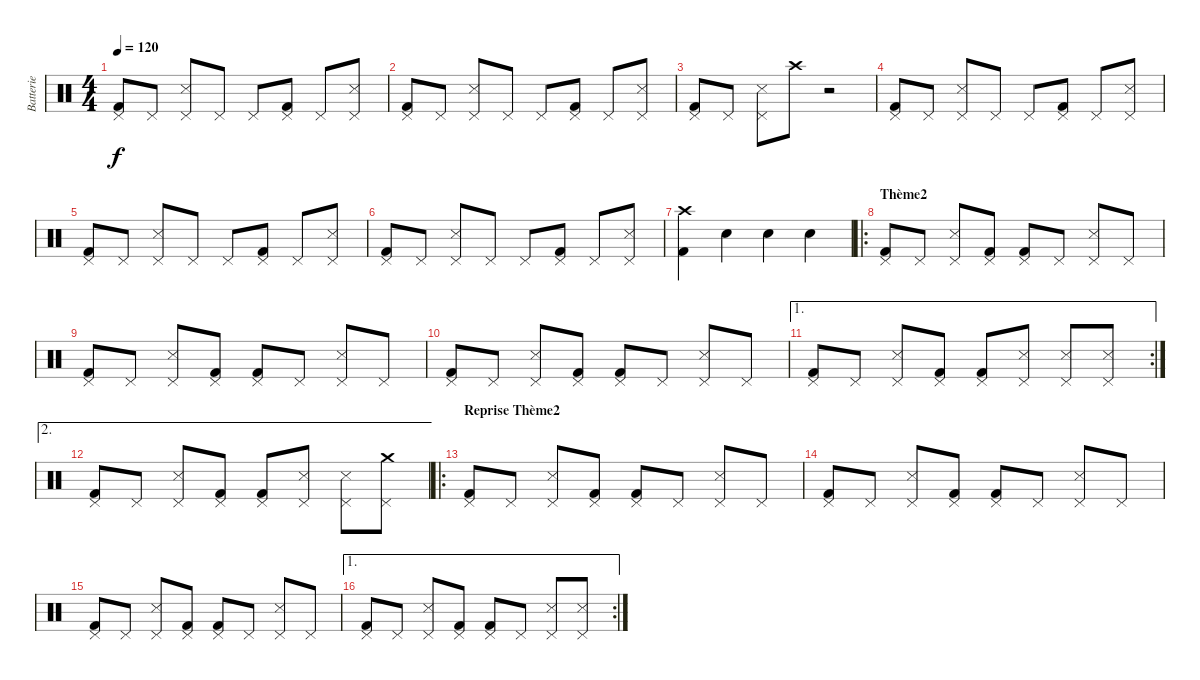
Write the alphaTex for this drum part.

\track ("Batterie" "Batterie") {instrument percussion}
\staff {score}
\articulation defaults
\ts (4 4)
\tempo 120
\clef neutral
\ks c
("Pedal Hi-Hat (hit)" "Kick (hit) 2").8{dy f} "Pedal Hi-Hat (hit)".8 ("Pedal Hi-Hat (hit)" "Snare (side stick) 3").8 "Pedal Hi-Hat (hit)".8 "Pedal Hi-Hat (hit)".8 ("Pedal Hi-Hat (hit)" "Kick (hit) 2").8 "Pedal Hi-Hat (hit)".8 ("Pedal Hi-Hat (hit)" "Snare (side stick) 3").8 |
("Pedal Hi-Hat (hit)" "Kick (hit) 2").8 "Pedal Hi-Hat (hit)".8 ("Pedal Hi-Hat (hit)" "Snare (side stick) 3").8 "Pedal Hi-Hat (hit)".8 "Pedal Hi-Hat (hit)".8 ("Pedal Hi-Hat (hit)" "Kick (hit) 2").8 "Pedal Hi-Hat (hit)".8 ("Pedal Hi-Hat (hit)" "Snare (side stick) 3").8 |
("Pedal Hi-Hat (hit)" "Kick (hit) 2").8 "Pedal Hi-Hat (hit)".8 ("Pedal Hi-Hat (hit)" "Snare (side stick) 3").8 "Crash high (hit)".8 r.2 |
("Pedal Hi-Hat (hit)" "Kick (hit) 2").8 "Pedal Hi-Hat (hit)".8 ("Pedal Hi-Hat (hit)" "Snare (side stick) 3").8 "Pedal Hi-Hat (hit)".8 "Pedal Hi-Hat (hit)".8 ("Pedal Hi-Hat (hit)" "Kick (hit) 2").8 "Pedal Hi-Hat (hit)".8 ("Pedal Hi-Hat (hit)" "Snare (side stick) 3").8 |
("Pedal Hi-Hat (hit)" "Kick (hit) 2").8 "Pedal Hi-Hat (hit)".8 ("Pedal Hi-Hat (hit)" "Snare (side stick) 3").8 "Pedal Hi-Hat (hit)".8 "Pedal Hi-Hat (hit)".8 ("Pedal Hi-Hat (hit)" "Kick (hit) 2").8 "Pedal Hi-Hat (hit)".8 ("Pedal Hi-Hat (hit)" "Snare (side stick) 3").8 |
("Pedal Hi-Hat (hit)" "Kick (hit) 2").8 "Pedal Hi-Hat (hit)".8 ("Pedal Hi-Hat (hit)" "Snare (side stick) 3").8 "Pedal Hi-Hat (hit)".8 "Pedal Hi-Hat (hit)".8 ("Pedal Hi-Hat (hit)" "Kick (hit) 2").8 "Pedal Hi-Hat (hit)".8 ("Pedal Hi-Hat (hit)" "Snare (side stick) 3").8 |
("Crash high (hit)" "Kick (hit) 2").4 "Snare (hit) 2".4 "Snare (hit) 2".4 "Snare (hit) 2".4 |
\ro
\section ("" "Thème2")
("Pedal Hi-Hat (hit)" "Kick (hit) 2").8 "Pedal Hi-Hat (hit)".8 ("Pedal Hi-Hat (hit)" "Snare (side stick) 3").8 ("Pedal Hi-Hat (hit)" "Kick (hit) 2").8 ("Pedal Hi-Hat (hit)" "Kick (hit) 2").8 "Pedal Hi-Hat (hit)".8 ("Pedal Hi-Hat (hit)" "Snare (side stick) 3").8 "Pedal Hi-Hat (hit)".8 |
("Pedal Hi-Hat (hit)" "Kick (hit) 2").8 "Pedal Hi-Hat (hit)".8 ("Pedal Hi-Hat (hit)" "Snare (side stick) 3").8 ("Pedal Hi-Hat (hit)" "Kick (hit) 2").8 ("Pedal Hi-Hat (hit)" "Kick (hit) 2").8 "Pedal Hi-Hat (hit)".8 ("Pedal Hi-Hat (hit)" "Snare (side stick) 3").8 "Pedal Hi-Hat (hit)".8 |
("Pedal Hi-Hat (hit)" "Kick (hit) 2").8 "Pedal Hi-Hat (hit)".8 ("Pedal Hi-Hat (hit)" "Snare (side stick) 3").8 ("Pedal Hi-Hat (hit)" "Kick (hit) 2").8 ("Pedal Hi-Hat (hit)" "Kick (hit) 2").8 "Pedal Hi-Hat (hit)".8 ("Pedal Hi-Hat (hit)" "Snare (side stick) 3").8 "Pedal Hi-Hat (hit)".8 |
\ae 1
\rc 2
("Pedal Hi-Hat (hit)" "Kick (hit) 2").8 "Pedal Hi-Hat (hit)".8 ("Pedal Hi-Hat (hit)" "Snare (side stick) 3").8 ("Pedal Hi-Hat (hit)" "Kick (hit) 2").8 ("Pedal Hi-Hat (hit)" "Kick (hit) 2").8 ("Pedal Hi-Hat (hit)" "Snare (side stick) 3").8 ("Pedal Hi-Hat (hit)" "Snare (side stick) 3").8 ("Pedal Hi-Hat (hit)" "Snare (side stick) 3").8 |
\ae 2
("Pedal Hi-Hat (hit)" "Kick (hit) 2").8 "Pedal Hi-Hat (hit)".8 ("Pedal Hi-Hat (hit)" "Snare (side stick) 3").8 ("Pedal Hi-Hat (hit)" "Kick (hit) 2").8 ("Pedal Hi-Hat (hit)" "Kick (hit) 2").8 ("Pedal Hi-Hat (hit)" "Snare (side stick) 3").8 ("Pedal Hi-Hat (hit)" "Snare (side stick) 3").8 ("Pedal Hi-Hat (hit)" "Crash medium (hit)").8 |
\ro
\section ("" "Reprise Thème2")
("Pedal Hi-Hat (hit)" "Kick (hit) 2").8 "Pedal Hi-Hat (hit)".8 ("Pedal Hi-Hat (hit)" "Snare (side stick) 3").8 ("Pedal Hi-Hat (hit)" "Kick (hit) 2").8 ("Pedal Hi-Hat (hit)" "Kick (hit) 2").8 "Pedal Hi-Hat (hit)".8 ("Pedal Hi-Hat (hit)" "Snare (side stick) 3").8 "Pedal Hi-Hat (hit)".8 |
("Pedal Hi-Hat (hit)" "Kick (hit) 2").8 "Pedal Hi-Hat (hit)".8 ("Pedal Hi-Hat (hit)" "Snare (side stick) 3").8 ("Pedal Hi-Hat (hit)" "Kick (hit) 2").8 ("Pedal Hi-Hat (hit)" "Kick (hit) 2").8 "Pedal Hi-Hat (hit)".8 ("Pedal Hi-Hat (hit)" "Snare (side stick) 3").8 "Pedal Hi-Hat (hit)".8 |
("Pedal Hi-Hat (hit)" "Kick (hit) 2").8 "Pedal Hi-Hat (hit)".8 ("Pedal Hi-Hat (hit)" "Snare (side stick) 3").8 ("Pedal Hi-Hat (hit)" "Kick (hit) 2").8 ("Pedal Hi-Hat (hit)" "Kick (hit) 2").8 "Pedal Hi-Hat (hit)".8 ("Pedal Hi-Hat (hit)" "Snare (side stick) 3").8 "Pedal Hi-Hat (hit)".8 |
\ae 1
\rc 2
("Pedal Hi-Hat (hit)" "Kick (hit) 2").8 "Pedal Hi-Hat (hit)".8 ("Pedal Hi-Hat (hit)" "Snare (side stick) 3").8 ("Pedal Hi-Hat (hit)" "Kick (hit) 2").8 ("Pedal Hi-Hat (hit)" "Kick (hit) 2").8 "Pedal Hi-Hat (hit)".8 ("Pedal Hi-Hat (hit)" "Snare (side stick) 3").8 ("Pedal Hi-Hat (hit)" "Snare (side stick) 3").8
